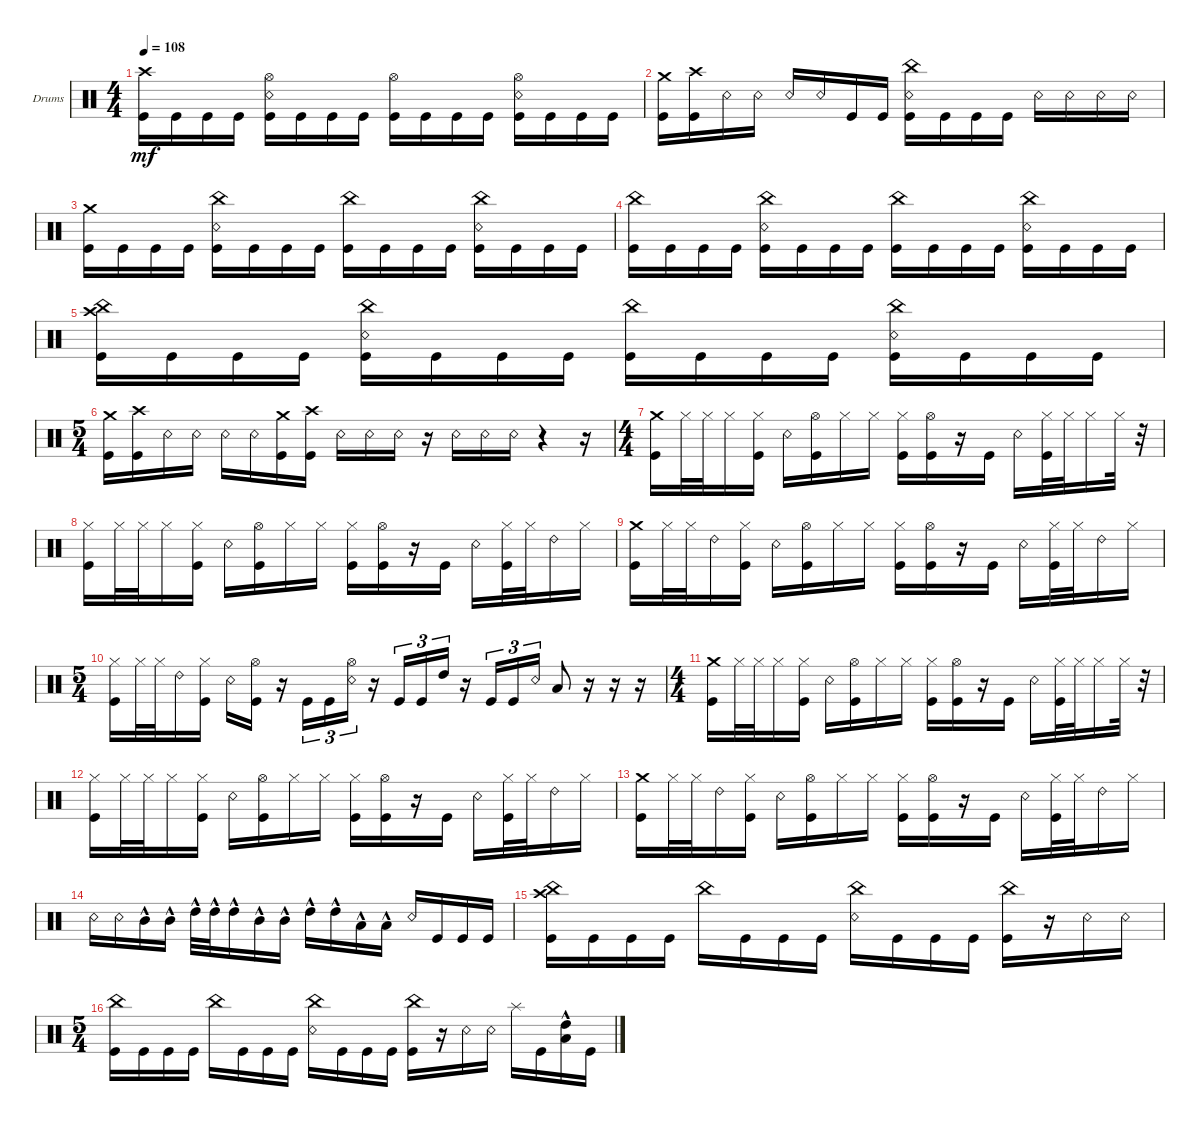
\defaultSystemsLayout 4
\bracketExtendMode groupsimilarinstruments
\firstSystemTrackNameOrientation horizontal
\otherSystemsTrackNameOrientation horizontal
\track ("Drumkit" "Drums") {instrument percussion}
\staff {score}
\articulation defaults
\ts (4 4)
\tempo 108
\clef neutral
\ks c
("Kick (hit)" "Crash high (hit)").16{dy mf} "Kick (hit)".16 "Kick (hit)".16 "Kick (hit)".16 ("Kick (hit)" "Snare (rim shot)" "Hi-Hat (open)").16 "Kick (hit)".16 "Kick (hit)".16 "Kick (hit)".16 ("Kick (hit)" "Hi-Hat (open)").16 "Kick (hit)".16 "Kick (hit)".16 "Kick (hit)".16 ("Kick (hit)" "Snare (rim shot)" "Hi-Hat (open)").16 "Kick (hit)".16 "Kick (hit)".16 "Kick (hit)".16 |
("Kick (hit)" "Crash medium (hit)").16 ("Kick (hit)" "Crash high (hit)").16 "Snare (rim shot)".16 "Snare (rim shot)".16 "Snare (rim shot)".16 "Snare (rim shot)".16 "Kick (hit)".16 "Kick (hit)".16 ("Kick (hit)" "Snare (rim shot)" "China (hit)").16 "Kick (hit)".16 "Kick (hit)".16 "Kick (hit)".16 "Snare (rim shot)".16 "Snare (rim shot)".16 "Snare (rim shot)".16 "Snare (rim shot)".16 |
("Kick (hit)" "Crash medium (hit)").16 "Kick (hit)".16 "Kick (hit)".16 "Kick (hit)".16 ("Kick (hit)" "China (hit)" "Snare (rim shot)").16 "Kick (hit)".16 "Kick (hit)".16 "Kick (hit)".16 ("Kick (hit)" "China (hit)").16 "Kick (hit)".16 "Kick (hit)".16 "Kick (hit)".16 ("Kick (hit)" "China (hit)" "Snare (rim shot)").16 "Kick (hit)".16 "Kick (hit)".16 "Kick (hit)".16 |
("Kick (hit)" "China (hit)").16 "Kick (hit)".16 "Kick (hit)".16 "Kick (hit)".16 ("Snare (rim shot)" "China (hit)" "Kick (hit)").16 "Kick (hit)".16 "Kick (hit)".16 "Kick (hit)".16 ("Kick (hit)" "China (hit)").16 "Kick (hit)".16 "Kick (hit)".16 "Kick (hit)".16 ("Snare (rim shot)" "Kick (hit)" "China (hit)").16 "Kick (hit)".16 "Kick (hit)".16 "Kick (hit)".16 |
("Kick (hit)" "China (hit)" "Crash high (hit)").16 "Kick (hit)".16 "Kick (hit)".16 "Kick (hit)".16 ("Kick (hit)" "China (hit)" "Snare (rim shot)").16 "Kick (hit)".16 "Kick (hit)".16 "Kick (hit)".16 ("Kick (hit)" "China (hit)").16 "Kick (hit)".16 "Kick (hit)".16 "Kick (hit)".16 ("Kick (hit)" "China (hit)" "Snare (rim shot)").16 "Kick (hit)".16 "Kick (hit)".16 "Kick (hit)".16 |
\ts (5 4)
("Kick (hit)" "Crash medium (hit)").16 ("Kick (hit)" "Crash high (hit)").16 "Snare (rim shot)".16 "Snare (rim shot)".16 "Snare (rim shot)".16 "Snare (rim shot)".16 ("Kick (hit)" "Crash medium (hit)").16 ("Kick (hit)" "Crash high (hit)").16 "Snare (rim shot)".16 "Snare (rim shot)".16 "Snare (rim shot)".16 r.16 "Snare (rim shot)".16 "Snare (rim shot)".16 "Snare (rim shot)".16 r.4 r.16 |
\ts (4 4)
("Kick (hit)" "Crash medium (hit)").16 "Hi-Hat (closed)".32 "Hi-Hat (closed)".32 "Hi-Hat (closed)".16 ("Kick (hit)" "Hi-Hat (closed)").16 "Snare (rim shot)".16 ("Hi-Hat (open)" "Kick (hit)").16 "Hi-Hat (closed)".16 "Hi-Hat (closed)".16 ("Hi-Hat (closed)" "Kick (hit)").16 ("Kick (hit)" "Hi-Hat (open)").16 r.16 "Kick (hit)".16 "Snare (rim shot)".16 ("Kick (hit)" "Hi-Hat (closed)").32 "Hi-Hat (closed)".32 "Hi-Hat (closed)".16 "Hi-Hat (closed)".32 r.32 |
("Hi-Hat (closed)" "Kick (hit)").16 "Hi-Hat (closed)".32 "Hi-Hat (closed)".32 "Hi-Hat (closed)".16 ("Kick (hit)" "Hi-Hat (closed)").16 "Snare (rim shot)".16 ("Hi-Hat (open)" "Kick (hit)").16 "Hi-Hat (closed)".16 "Hi-Hat (closed)".16 ("Hi-Hat (closed)" "Kick (hit)").16 ("Kick (hit)" "Hi-Hat (open)").16 r.16 "Kick (hit)".16 "Snare (rim shot)".16 ("Kick (hit)" "Hi-Hat (closed)").32 "Hi-Hat (closed)".32 "Ride (bell) 2".16 "Hi-Hat (closed)".16 |
("Kick (hit)" "Crash medium (hit)").16 "Hi-Hat (closed)".32 "Hi-Hat (closed)".32 "Ride (bell) 2".16 ("Kick (hit)" "Hi-Hat (closed)").16 "Snare (rim shot)".16 ("Hi-Hat (open)" "Kick (hit)").16 "Hi-Hat (closed)".16 "Hi-Hat (closed)".16 ("Hi-Hat (closed)" "Kick (hit)").16 ("Kick (hit)" "Hi-Hat (open)").16 r.16 "Kick (hit)".16 "Snare (rim shot)".16 ("Kick (hit)" "Hi-Hat (closed)").32 "Hi-Hat (closed)".32 "Ride (bell) 2".16 "Hi-Hat (closed)".16 |
\ts (5 4)
("Hi-Hat (closed)" "Kick (hit)").16 "Hi-Hat (closed)".32 "Hi-Hat (closed)".32 "Ride (bell) 2".16 ("Kick (hit)" "Hi-Hat (closed)").16 "Snare (rim shot)".16 ("Hi-Hat (open)" "Kick (hit)").16 r.16 "Kick (hit)".16{tu (3 2)} "Kick (hit)".16{tu (3 2)} ("Snare (rim shot)" "Hi-Hat (open)").16{tu (3 2)} r.16 "Kick (hit)".16{tu (3 2)} "Kick (hit)".16{tu (3 2)} "High Tom (hit)".16{tu (3 2)} r.16 "Kick (hit)".16{tu (3 2)} "Kick (hit)".16{tu (3 2)} "Snare (rim shot)".16{tu (3 2)} "Low Tom (hit)".8 r.16 r.16 r.16 |
\ts (4 4)
("Kick (hit)" "Crash medium (hit)").16 "Hi-Hat (closed)".32 "Hi-Hat (closed)".32 "Hi-Hat (closed)".16 ("Kick (hit)" "Hi-Hat (closed)").16 "Snare (rim shot)".16 ("Hi-Hat (open)" "Kick (hit)").16 "Hi-Hat (closed)".16 "Hi-Hat (closed)".16 ("Hi-Hat (closed)" "Kick (hit)").16 ("Kick (hit)" "Hi-Hat (open)").16 r.16 "Kick (hit)".16 "Snare (rim shot)".16 ("Kick (hit)" "Hi-Hat (closed)").32 "Hi-Hat (closed)".32 "Hi-Hat (closed)".16 "Hi-Hat (closed)".32 r.32 |
("Hi-Hat (closed)" "Kick (hit)").16 "Hi-Hat (closed)".32 "Hi-Hat (closed)".32 "Hi-Hat (closed)".16 ("Kick (hit)" "Hi-Hat (closed)").16 "Snare (rim shot)".16 ("Hi-Hat (open)" "Kick (hit)").16 "Hi-Hat (closed)".16 "Hi-Hat (closed)".16 ("Hi-Hat (closed)" "Kick (hit)").16 ("Kick (hit)" "Hi-Hat (open)").16 r.16 "Kick (hit)".16 "Snare (rim shot)".16 ("Kick (hit)" "Hi-Hat (closed)").32 "Hi-Hat (closed)".32 "Ride (bell) 2".16 "Hi-Hat (closed)".16 |
("Kick (hit)" "Crash medium (hit)").16 "Hi-Hat (closed)".32 "Hi-Hat (closed)".32 "Ride (bell) 2".16 ("Kick (hit)" "Hi-Hat (closed)").16 "Snare (rim shot)".16 ("Hi-Hat (open)" "Kick (hit)").16 "Hi-Hat (closed)".16 "Hi-Hat (closed)".16 ("Hi-Hat (closed)" "Kick (hit)").16 ("Kick (hit)" "Hi-Hat (open)").16 r.16 "Kick (hit)".16 "Snare (rim shot)".16 ("Kick (hit)" "Hi-Hat (closed)").32 "Hi-Hat (closed)".32 "Ride (bell) 2".16 "Hi-Hat (closed)".16 |
"Snare (rim shot)".16 "Snare (rim shot)".16 "Mid Tom (hit)"{hac}.16 "Mid Tom (hit)"{hac}.16 "High Tom (hit)"{hac}.32 "High Tom (hit)"{hac}.32 "High Tom (hit)"{hac}.16 "Mid Tom (hit)"{hac}.16 "Mid Tom (hit)"{hac}.16 "High Tom (hit)"{hac}.16 "High Tom (hit)"{hac}.16 "Low Tom (hit)"{hac}.16 "Low Tom (hit)"{hac}.16 "Snare (rim shot)".16 "Kick (hit)".16 "Kick (hit)".16 "Kick (hit)".16 |
("Kick (hit)" "China (hit)" "Crash high (hit)").16 "Kick (hit)".16 "Kick (hit)".16 "Kick (hit)".16 "China (hit)".16 "Kick (hit)".16 "Kick (hit)".16 "Kick (hit)".16 ("Snare (rim shot)" "China (hit)").16 "Kick (hit)".16 "Kick (hit)".16 "Kick (hit)".16 ("Kick (hit)" "China (hit)").16 r.16 "Snare (rim shot)".16 "Snare (rim shot)".16 |
\ts (5 4)
("Kick (hit)" "China (hit)").16 "Kick (hit)".16 "Kick (hit)".16 "Kick (hit)".16 "China (hit)".16 "Kick (hit)".16 "Kick (hit)".16 "Kick (hit)".16 ("Snare (rim shot)" "China (hit)").16 "Kick (hit)".16 "Kick (hit)".16 "Kick (hit)".16 ("Kick (hit)" "China (hit)").16 r.16 "Snare (rim shot)".16 "Snare (rim shot)".16 "Splash (hit)".16 "Kick (hit)".16 ("Low Tom (hit)"{hac} "High Tom (hit)").16 "Kick (hit)".16
